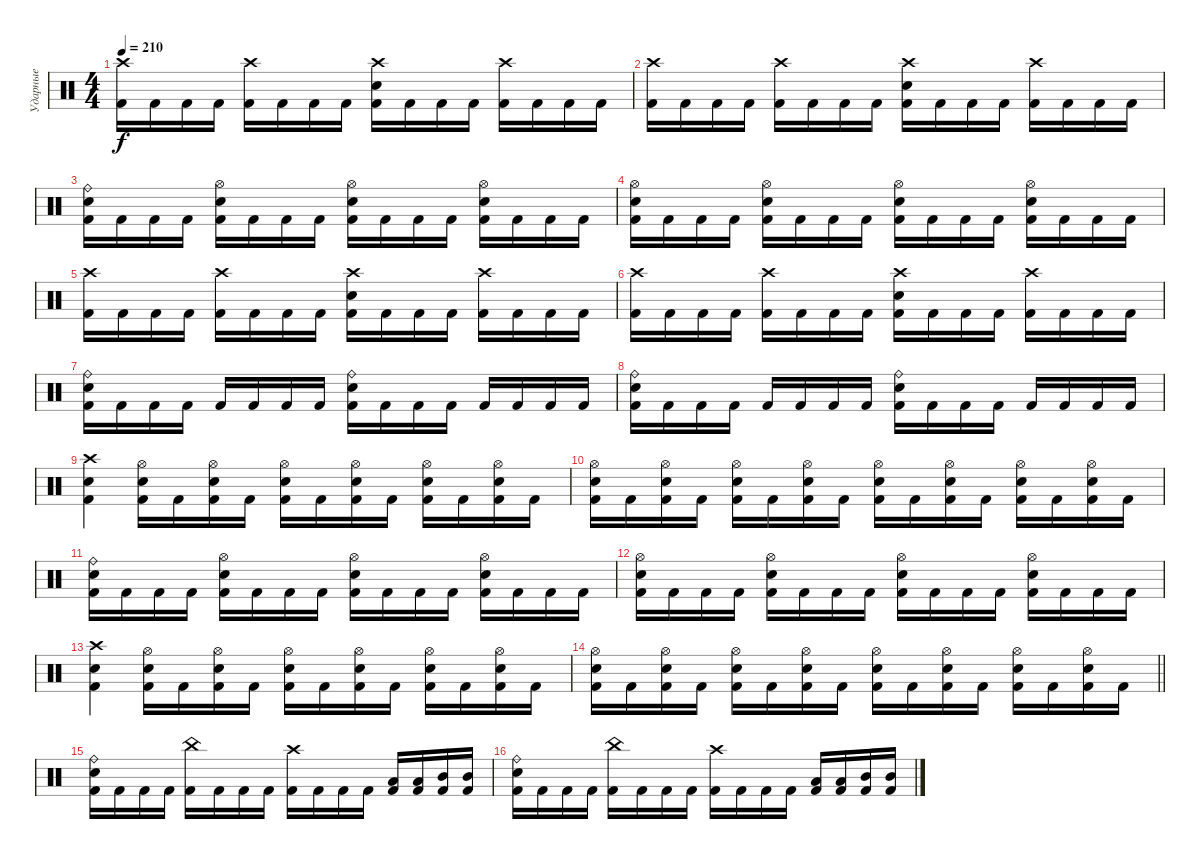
\track ("Ударные" "Ударные") {instrument percussion}
\staff {score}
\articulation defaults
\ts (4 4)
\tempo 210
\clef neutral
\ks c
("Crash high (hit)" "Kick (hit) 2").16{dy f} "Kick (hit) 2".16 "Kick (hit) 2".16 "Kick (hit) 2".16 ("Crash high (hit)" "Kick (hit) 2").16 "Kick (hit) 2".16 "Kick (hit) 2".16 "Kick (hit) 2".16 ("Crash high (hit)" "Snare (hit) 2" "Kick (hit) 2").16 "Kick (hit) 2".16 "Kick (hit) 2".16 "Kick (hit) 2".16 ("Crash high (hit)" "Kick (hit) 2").16 "Kick (hit) 2".16 "Kick (hit) 2".16 "Kick (hit) 2".16 |
("Crash high (hit)" "Kick (hit) 2").16 "Kick (hit) 2".16 "Kick (hit) 2".16 "Kick (hit) 2".16 ("Crash high (hit)" "Kick (hit) 2").16 "Kick (hit) 2".16 "Kick (hit) 2".16 "Kick (hit) 2".16 ("Crash high (hit)" "Snare (hit) 2" "Kick (hit) 2").16 "Kick (hit) 2".16 "Kick (hit) 2".16 "Kick (hit) 2".16 ("Crash high (hit)" "Kick (hit) 2").16 "Kick (hit) 2".16 "Kick (hit) 2".16 "Kick (hit) 2".16 |
("Ride (bell)" "Snare (hit) 2" "Kick (hit) 2").16 "Kick (hit) 2".16 "Kick (hit) 2".16 "Kick (hit) 2".16 ("Hi-Hat (open)" "Snare (hit) 2" "Kick (hit) 2").16 "Kick (hit) 2".16 "Kick (hit) 2".16 "Kick (hit) 2".16 ("Hi-Hat (open)" "Snare (hit) 2" "Kick (hit) 2").16 "Kick (hit) 2".16 "Kick (hit) 2".16 "Kick (hit) 2".16 ("Hi-Hat (open)" "Snare (hit) 2" "Kick (hit) 2").16 "Kick (hit) 2".16 "Kick (hit) 2".16 "Kick (hit) 2".16 |
("Hi-Hat (open)" "Snare (hit) 2" "Kick (hit) 2").16 "Kick (hit) 2".16 "Kick (hit) 2".16 "Kick (hit) 2".16 ("Hi-Hat (open)" "Snare (hit) 2" "Kick (hit) 2").16 "Kick (hit) 2".16 "Kick (hit) 2".16 "Kick (hit) 2".16 ("Hi-Hat (open)" "Snare (hit) 2" "Kick (hit) 2").16 "Kick (hit) 2".16 "Kick (hit) 2".16 "Kick (hit) 2".16 ("Hi-Hat (open)" "Snare (hit) 2" "Kick (hit) 2").16 "Kick (hit) 2".16 "Kick (hit) 2".16 "Kick (hit) 2".16 |
("Crash high (hit)" "Kick (hit) 2").16 "Kick (hit) 2".16 "Kick (hit) 2".16 "Kick (hit) 2".16 ("Crash high (hit)" "Kick (hit) 2").16 "Kick (hit) 2".16 "Kick (hit) 2".16 "Kick (hit) 2".16 ("Crash high (hit)" "Snare (hit) 2" "Kick (hit) 2").16 "Kick (hit) 2".16 "Kick (hit) 2".16 "Kick (hit) 2".16 ("Crash high (hit)" "Kick (hit) 2").16 "Kick (hit) 2".16 "Kick (hit) 2".16 "Kick (hit) 2".16 |
("Crash high (hit)" "Kick (hit) 2").16 "Kick (hit) 2".16 "Kick (hit) 2".16 "Kick (hit) 2".16 ("Crash high (hit)" "Kick (hit) 2").16 "Kick (hit) 2".16 "Kick (hit) 2".16 "Kick (hit) 2".16 ("Crash high (hit)" "Snare (hit) 2" "Kick (hit) 2").16 "Kick (hit) 2".16 "Kick (hit) 2".16 "Kick (hit) 2".16 ("Crash high (hit)" "Kick (hit) 2").16 "Kick (hit) 2".16 "Kick (hit) 2".16 "Kick (hit) 2".16 |
("Ride (bell)" "Snare (hit) 2" "Kick (hit) 2").16 "Kick (hit) 2".16 "Kick (hit) 2".16 "Kick (hit) 2".16 "Kick (hit) 2".16 "Kick (hit) 2".16 "Kick (hit) 2".16 "Kick (hit) 2".16 ("Ride (bell)" "Snare (hit) 2" "Kick (hit) 2").16 "Kick (hit) 2".16 "Kick (hit) 2".16 "Kick (hit) 2".16 "Kick (hit) 2".16 "Kick (hit) 2".16 "Kick (hit) 2".16 "Kick (hit) 2".16 |
("Ride (bell)" "Snare (hit) 2" "Kick (hit) 2").16 "Kick (hit) 2".16 "Kick (hit) 2".16 "Kick (hit) 2".16 "Kick (hit) 2".16 "Kick (hit) 2".16 "Kick (hit) 2".16 "Kick (hit) 2".16 ("Ride (bell)" "Snare (hit) 2" "Kick (hit) 2").16 "Kick (hit) 2".16 "Kick (hit) 2".16 "Kick (hit) 2".16 "Kick (hit) 2".16 "Kick (hit) 2".16 "Kick (hit) 2".16 "Kick (hit) 2".16 |
("Crash high (hit)" "Snare (hit) 2" "Kick (hit) 2").4 ("Hi-Hat (open)" "Snare (hit) 2" "Kick (hit) 2").16 "Kick (hit) 2".16 ("Hi-Hat (open)" "Snare (hit) 2" "Kick (hit) 2").16 "Kick (hit) 2".16 ("Hi-Hat (open)" "Snare (hit) 2" "Kick (hit) 2").16 "Kick (hit) 2".16 ("Hi-Hat (open)" "Snare (hit) 2" "Kick (hit) 2").16 "Kick (hit) 2".16 ("Hi-Hat (open)" "Snare (hit) 2" "Kick (hit) 2").16 "Kick (hit) 2".16 ("Hi-Hat (open)" "Snare (hit) 2" "Kick (hit) 2").16 "Kick (hit) 2".16 |
("Hi-Hat (open)" "Snare (hit) 2" "Kick (hit) 2").16 "Kick (hit) 2".16 ("Hi-Hat (open)" "Snare (hit) 2" "Kick (hit) 2").16 "Kick (hit) 2".16 ("Hi-Hat (open)" "Snare (hit) 2" "Kick (hit) 2").16 "Kick (hit) 2".16 ("Hi-Hat (open)" "Snare (hit) 2" "Kick (hit) 2").16 "Kick (hit) 2".16 ("Hi-Hat (open)" "Snare (hit) 2" "Kick (hit) 2").16 "Kick (hit) 2".16 ("Hi-Hat (open)" "Snare (hit) 2" "Kick (hit) 2").16 "Kick (hit) 2".16 ("Hi-Hat (open)" "Snare (hit) 2" "Kick (hit) 2").16 "Kick (hit) 2".16 ("Hi-Hat (open)" "Snare (hit) 2" "Kick (hit) 2").16 "Kick (hit) 2".16 |
("Ride (bell)" "Snare (hit) 2" "Kick (hit) 2").16 "Kick (hit) 2".16 "Kick (hit) 2".16 "Kick (hit) 2".16 ("Hi-Hat (open)" "Snare (hit) 2" "Kick (hit) 2").16 "Kick (hit) 2".16 "Kick (hit) 2".16 "Kick (hit) 2".16 ("Hi-Hat (open)" "Snare (hit) 2" "Kick (hit) 2").16 "Kick (hit) 2".16 "Kick (hit) 2".16 "Kick (hit) 2".16 ("Hi-Hat (open)" "Snare (hit) 2" "Kick (hit) 2").16 "Kick (hit) 2".16 "Kick (hit) 2".16 "Kick (hit) 2".16 |
("Hi-Hat (open)" "Snare (hit) 2" "Kick (hit) 2").16 "Kick (hit) 2".16 "Kick (hit) 2".16 "Kick (hit) 2".16 ("Hi-Hat (open)" "Snare (hit) 2" "Kick (hit) 2").16 "Kick (hit) 2".16 "Kick (hit) 2".16 "Kick (hit) 2".16 ("Hi-Hat (open)" "Snare (hit) 2" "Kick (hit) 2").16 "Kick (hit) 2".16 "Kick (hit) 2".16 "Kick (hit) 2".16 ("Hi-Hat (open)" "Snare (hit) 2" "Kick (hit) 2").16 "Kick (hit) 2".16 "Kick (hit) 2".16 "Kick (hit) 2".16 |
("Crash high (hit)" "Snare (hit) 2" "Kick (hit) 2").4 ("Hi-Hat (open)" "Snare (hit) 2" "Kick (hit) 2").16 "Kick (hit) 2".16 ("Hi-Hat (open)" "Snare (hit) 2" "Kick (hit) 2").16 "Kick (hit) 2".16 ("Hi-Hat (open)" "Snare (hit) 2" "Kick (hit) 2").16 "Kick (hit) 2".16 ("Hi-Hat (open)" "Snare (hit) 2" "Kick (hit) 2").16 "Kick (hit) 2".16 ("Hi-Hat (open)" "Snare (hit) 2" "Kick (hit) 2").16 "Kick (hit) 2".16 ("Hi-Hat (open)" "Snare (hit) 2" "Kick (hit) 2").16 "Kick (hit) 2".16 |
\barLineRight lightlight
("Hi-Hat (open)" "Snare (hit) 2" "Kick (hit) 2").16 "Kick (hit) 2".16 ("Hi-Hat (open)" "Snare (hit) 2" "Kick (hit) 2").16 "Kick (hit) 2".16 ("Hi-Hat (open)" "Snare (hit) 2" "Kick (hit) 2").16 "Kick (hit) 2".16 ("Hi-Hat (open)" "Snare (hit) 2" "Kick (hit) 2").16 "Kick (hit) 2".16 ("Hi-Hat (open)" "Snare (hit) 2" "Kick (hit) 2").16 "Kick (hit) 2".16 ("Hi-Hat (open)" "Snare (hit) 2" "Kick (hit) 2").16 "Kick (hit) 2".16 ("Hi-Hat (open)" "Snare (hit) 2" "Kick (hit) 2").16 "Kick (hit) 2".16 ("Hi-Hat (open)" "Snare (hit) 2" "Kick (hit) 2").16 "Kick (hit) 2".16 |
("Ride (bell)" "Snare (hit) 2" "Kick (hit) 2").16 "Kick (hit) 2".16 "Kick (hit) 2".16 "Kick (hit) 2".16 ("China (hit)" "Kick (hit) 2").16 "Kick (hit) 2".16 "Kick (hit) 2".16 "Kick (hit) 2".16 ("Crash high (hit)" "Kick (hit) 2").16 "Kick (hit) 2".16 "Kick (hit) 2".16 "Kick (hit) 2".16 ("Low Tom (hit)" "Kick (hit) 2").16 ("Low Tom (hit)" "Kick (hit) 2").16 ("Mid Tom (hit)" "Kick (hit) 2").16 ("Mid Tom (hit)" "Kick (hit) 2").16 |
("Ride (bell)" "Snare (hit) 2" "Kick (hit) 2").16 "Kick (hit) 2".16 "Kick (hit) 2".16 "Kick (hit) 2".16 ("China (hit)" "Kick (hit) 2").16 "Kick (hit) 2".16 "Kick (hit) 2".16 "Kick (hit) 2".16 ("Crash high (hit)" "Kick (hit) 2").16 "Kick (hit) 2".16 "Kick (hit) 2".16 "Kick (hit) 2".16 ("Low Tom (hit)" "Kick (hit) 2").16 ("Low Tom (hit)" "Kick (hit) 2").16 ("Mid Tom (hit)" "Kick (hit) 2").16 ("Mid Tom (hit)" "Kick (hit) 2").16
